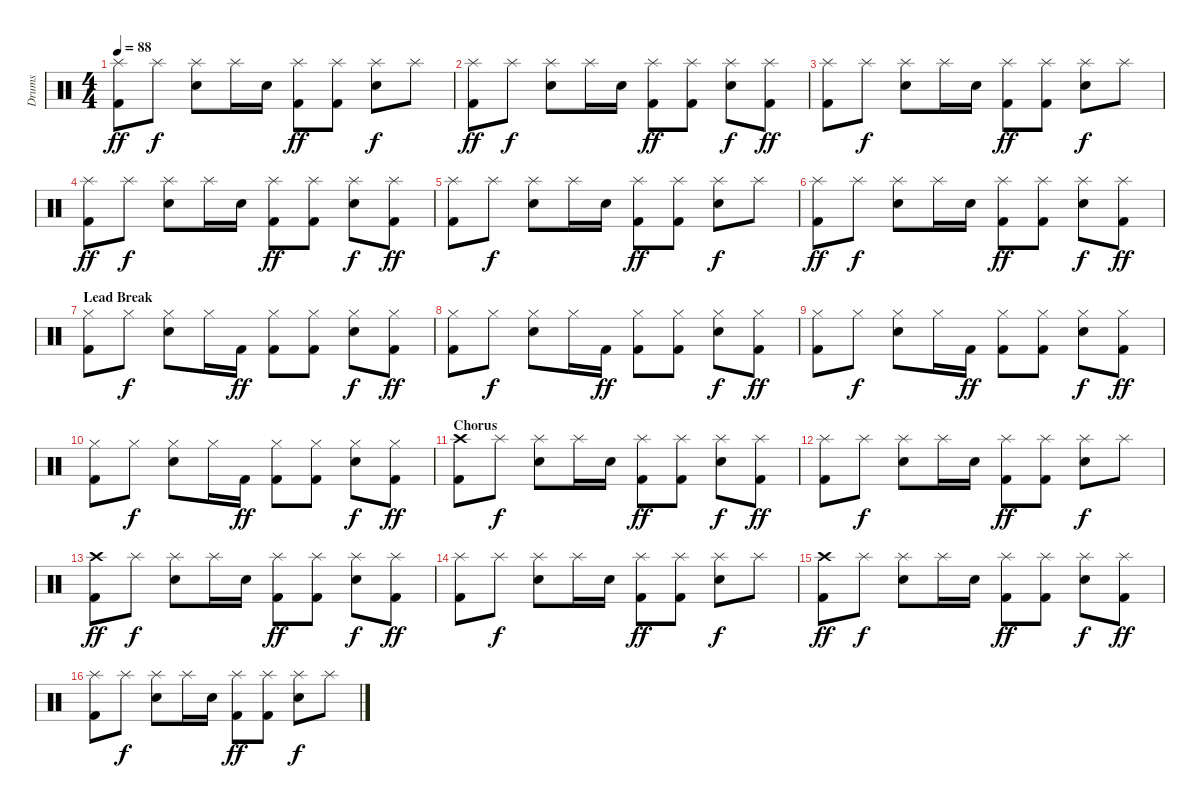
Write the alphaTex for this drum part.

\track ("Drums" "Drums") {instrument percussion}
\staff {score}
\articulation defaults
\ts (4 4)
\tempo 88
\clef neutral
\ks c
("Splash (hit)" "Kick (hit) 2").8{dy ff} "Splash (hit)".8{dy f} ("Splash (hit)" "Electric Snare (hit)").8 "Splash (hit)".16 "Electric Snare (hit)".16 ("Splash (hit)" "Kick (hit) 2").8{dy ff} ("Splash (hit)" "Kick (hit) 2").8 ("Splash (hit)" "Electric Snare (hit)").8{dy f} "Splash (hit)".8 |
("Splash (hit)" "Kick (hit) 2").8{dy ff} "Splash (hit)".8{dy f} ("Splash (hit)" "Electric Snare (hit)").8 "Splash (hit)".16 "Electric Snare (hit)".16 ("Splash (hit)" "Kick (hit) 2").8{dy ff} ("Splash (hit)" "Kick (hit) 2").8 ("Splash (hit)" "Electric Snare (hit)").8{dy f} ("Splash (hit)" "Kick (hit) 2").8{dy ff} |
("Splash (hit)" "Kick (hit) 2").8 "Splash (hit)".8{dy f} ("Splash (hit)" "Electric Snare (hit)").8 "Splash (hit)".16 "Electric Snare (hit)".16 ("Splash (hit)" "Kick (hit) 2").8{dy ff} ("Splash (hit)" "Kick (hit) 2").8 ("Splash (hit)" "Electric Snare (hit)").8{dy f} "Splash (hit)".8 |
("Splash (hit)" "Kick (hit) 2").8{dy ff} "Splash (hit)".8{dy f} ("Splash (hit)" "Electric Snare (hit)").8 "Splash (hit)".16 "Electric Snare (hit)".16 ("Splash (hit)" "Kick (hit) 2").8{dy ff} ("Splash (hit)" "Kick (hit) 2").8 ("Splash (hit)" "Electric Snare (hit)").8{dy f} ("Splash (hit)" "Kick (hit) 2").8{dy ff} |
("Splash (hit)" "Kick (hit) 2").8 "Splash (hit)".8{dy f} ("Splash (hit)" "Electric Snare (hit)").8 "Splash (hit)".16 "Electric Snare (hit)".16 ("Splash (hit)" "Kick (hit) 2").8{dy ff} ("Splash (hit)" "Kick (hit) 2").8 ("Splash (hit)" "Electric Snare (hit)").8{dy f} "Splash (hit)".8 |
("Splash (hit)" "Kick (hit) 2").8{dy ff} "Splash (hit)".8{dy f} ("Splash (hit)" "Electric Snare (hit)").8 "Splash (hit)".16 "Electric Snare (hit)".16 ("Splash (hit)" "Kick (hit) 2").8{dy ff} ("Splash (hit)" "Kick (hit) 2").8 ("Splash (hit)" "Electric Snare (hit)").8{dy f} ("Splash (hit)" "Kick (hit) 2").8{dy ff} |
\section ("" "Lead Break")
("Hi-Hat (closed)" "Kick (hit) 2").8 "Hi-Hat (closed)".8{dy f} ("Hi-Hat (closed)" "Electric Snare (hit)").8 "Hi-Hat (closed)".16 "Kick (hit) 2".16{dy ff} ("Hi-Hat (closed)" "Kick (hit) 2").8 ("Hi-Hat (closed)" "Kick (hit) 2").8 ("Hi-Hat (closed)" "Electric Snare (hit)").8{dy f} ("Hi-Hat (closed)" "Kick (hit) 2").8{dy ff} |
("Hi-Hat (closed)" "Kick (hit) 2").8 "Hi-Hat (closed)".8{dy f} ("Hi-Hat (closed)" "Electric Snare (hit)").8 "Hi-Hat (closed)".16 "Kick (hit) 2".16{dy ff} ("Hi-Hat (closed)" "Kick (hit) 2").8 ("Hi-Hat (closed)" "Kick (hit) 2").8 ("Hi-Hat (closed)" "Electric Snare (hit)").8{dy f} ("Hi-Hat (closed)" "Kick (hit) 2").8{dy ff} |
("Hi-Hat (closed)" "Kick (hit) 2").8 "Hi-Hat (closed)".8{dy f} ("Hi-Hat (closed)" "Electric Snare (hit)").8 "Hi-Hat (closed)".16 "Kick (hit) 2".16{dy ff} ("Hi-Hat (closed)" "Kick (hit) 2").8 ("Hi-Hat (closed)" "Kick (hit) 2").8 ("Hi-Hat (closed)" "Electric Snare (hit)").8{dy f} ("Hi-Hat (closed)" "Kick (hit) 2").8{dy ff} |
("Hi-Hat (closed)" "Kick (hit) 2").8 "Hi-Hat (closed)".8{dy f} ("Hi-Hat (closed)" "Electric Snare (hit)").8 "Hi-Hat (closed)".16 "Kick (hit) 2".16{dy ff} ("Hi-Hat (closed)" "Kick (hit) 2").8 ("Hi-Hat (closed)" "Kick (hit) 2").8 ("Hi-Hat (closed)" "Electric Snare (hit)").8{dy f} ("Hi-Hat (closed)" "Kick (hit) 2").8{dy ff} |
\section ("" "Chorus")
("Crash high (hit)" "Kick (hit) 2").8 "Splash (hit)".8{dy f} ("Splash (hit)" "Electric Snare (hit)").8 "Splash (hit)".16 "Electric Snare (hit)".16 ("Splash (hit)" "Kick (hit) 2").8{dy ff} ("Splash (hit)" "Kick (hit) 2").8 ("Splash (hit)" "Electric Snare (hit)").8{dy f} ("Splash (hit)" "Kick (hit) 2").8{dy ff} |
("Splash (hit)" "Kick (hit) 2").8 "Splash (hit)".8{dy f} ("Splash (hit)" "Electric Snare (hit)").8 "Splash (hit)".16 "Electric Snare (hit)".16 ("Splash (hit)" "Kick (hit) 2").8{dy ff} ("Splash (hit)" "Kick (hit) 2").8 ("Splash (hit)" "Electric Snare (hit)").8{dy f} "Splash (hit)".8 |
("Crash high (hit)" "Kick (hit) 2").8{dy ff} "Splash (hit)".8{dy f} ("Splash (hit)" "Electric Snare (hit)").8 "Splash (hit)".16 "Electric Snare (hit)".16 ("Splash (hit)" "Kick (hit) 2").8{dy ff} ("Splash (hit)" "Kick (hit) 2").8 ("Splash (hit)" "Electric Snare (hit)").8{dy f} ("Splash (hit)" "Kick (hit) 2").8{dy ff} |
("Splash (hit)" "Kick (hit) 2").8 "Splash (hit)".8{dy f} ("Splash (hit)" "Electric Snare (hit)").8 "Splash (hit)".16 "Electric Snare (hit)".16 ("Splash (hit)" "Kick (hit) 2").8{dy ff} ("Splash (hit)" "Kick (hit) 2").8 ("Splash (hit)" "Electric Snare (hit)").8{dy f} "Splash (hit)".8 |
("Crash high (hit)" "Kick (hit) 2").8{dy ff} "Splash (hit)".8{dy f} ("Splash (hit)" "Electric Snare (hit)").8 "Splash (hit)".16 "Electric Snare (hit)".16 ("Splash (hit)" "Kick (hit) 2").8{dy ff} ("Splash (hit)" "Kick (hit) 2").8 ("Splash (hit)" "Electric Snare (hit)").8{dy f} ("Splash (hit)" "Kick (hit) 2").8{dy ff} |
("Splash (hit)" "Kick (hit) 2").8 "Splash (hit)".8{dy f} ("Splash (hit)" "Electric Snare (hit)").8 "Splash (hit)".16 "Electric Snare (hit)".16 ("Splash (hit)" "Kick (hit) 2").8{dy ff} ("Splash (hit)" "Kick (hit) 2").8 ("Splash (hit)" "Electric Snare (hit)").8{dy f} "Splash (hit)".8
